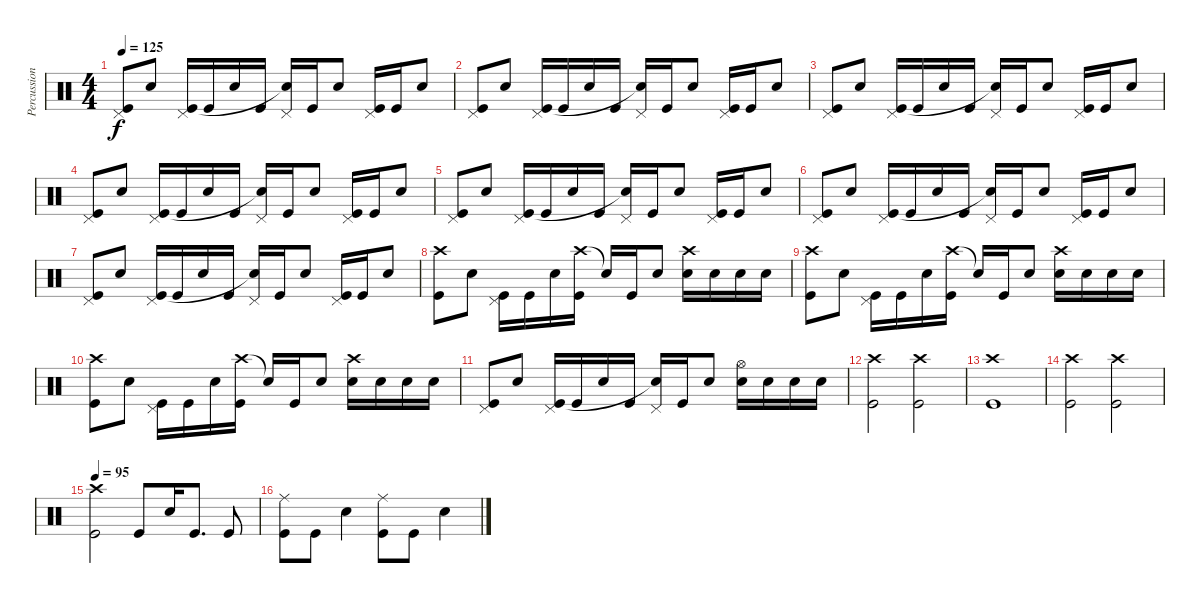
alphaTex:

\track ("Percussion" "Percussion") {instrument percussion}
\staff {score}
\articulation defaults
\ts (4 4)
\tempo 125
\clef neutral
\ks c
("Pedal Hi-Hat (hit)" "Kick (hit)").8{dy f} "Electric Snare (hit)".8 ("Pedal Hi-Hat (hit)" "Kick (hit)").16 "Kick (hit)".16 "Electric Snare (hit)".16 "Kick (hit)".16 ("Pedal Hi-Hat (hit)" "Snare (hit)"{t}).16 "Kick (hit)".16 "Electric Snare (hit)".8 ("Pedal Hi-Hat (hit)" "Kick (hit)").16 "Kick (hit)".16 "Electric Snare (hit)".8 |
("Pedal Hi-Hat (hit)" "Kick (hit)").8 "Electric Snare (hit)".8 ("Pedal Hi-Hat (hit)" "Kick (hit)").16 "Kick (hit)".16 "Electric Snare (hit)".16 "Kick (hit)".16 ("Pedal Hi-Hat (hit)" "Snare (hit)"{t}).16 "Kick (hit)".16 "Electric Snare (hit)".8 ("Pedal Hi-Hat (hit)" "Kick (hit)").16 "Kick (hit)".16 "Electric Snare (hit)".8 |
("Pedal Hi-Hat (hit)" "Kick (hit)").8 "Electric Snare (hit)".8 ("Pedal Hi-Hat (hit)" "Kick (hit)").16 "Kick (hit)".16 "Electric Snare (hit)".16 "Kick (hit)".16 ("Pedal Hi-Hat (hit)" "Snare (hit)"{t}).16 "Kick (hit)".16 "Electric Snare (hit)".8 ("Pedal Hi-Hat (hit)" "Kick (hit)").16 "Kick (hit)".16 "Electric Snare (hit)".8 |
("Pedal Hi-Hat (hit)" "Kick (hit)").8 "Electric Snare (hit)".8 ("Pedal Hi-Hat (hit)" "Kick (hit)").16 "Kick (hit)".16 "Electric Snare (hit)".16 "Kick (hit)".16 ("Pedal Hi-Hat (hit)" "Snare (hit)"{t}).16 "Kick (hit)".16 "Electric Snare (hit)".8 ("Pedal Hi-Hat (hit)" "Kick (hit)").16 "Kick (hit)".16 "Electric Snare (hit)".8 |
("Pedal Hi-Hat (hit)" "Kick (hit)").8 "Electric Snare (hit)".8 ("Pedal Hi-Hat (hit)" "Kick (hit)").16 "Kick (hit)".16 "Electric Snare (hit)".16 "Kick (hit)".16 ("Pedal Hi-Hat (hit)" "Snare (hit)"{t}).16 "Kick (hit)".16 "Electric Snare (hit)".8 ("Pedal Hi-Hat (hit)" "Kick (hit)").16 "Kick (hit)".16 "Electric Snare (hit)".8 |
("Pedal Hi-Hat (hit)" "Kick (hit)").8 "Electric Snare (hit)".8 ("Pedal Hi-Hat (hit)" "Kick (hit)").16 "Kick (hit)".16 "Electric Snare (hit)".16 "Kick (hit)".16 ("Pedal Hi-Hat (hit)" "Snare (hit)"{t}).16 "Kick (hit)".16 "Electric Snare (hit)".8 ("Pedal Hi-Hat (hit)" "Kick (hit)").16 "Kick (hit)".16 "Electric Snare (hit)".8 |
("Pedal Hi-Hat (hit)" "Kick (hit)").8 "Electric Snare (hit)".8 ("Pedal Hi-Hat (hit)" "Kick (hit)").16 "Kick (hit)".16 "Electric Snare (hit)".16 "Kick (hit)".16 ("Pedal Hi-Hat (hit)" "Snare (hit)"{t}).16 "Kick (hit)".16 "Electric Snare (hit)".8 ("Pedal Hi-Hat (hit)" "Kick (hit)").16 "Kick (hit)".16 "Electric Snare (hit)".8 |
("Crash high (hit)" "Kick (hit)").8 "Electric Snare (hit)".8 ("Pedal Hi-Hat (hit)" "Kick (hit)").16 "Kick (hit)".16 "Electric Snare (hit)".16 ("Crash high (hit)" "Kick (hit)").16 "Snare (hit)"{t}.16 "Kick (hit)".16 "Electric Snare (hit)".8 ("Crash high (hit)" "Electric Snare (hit)").16 "Electric Snare (hit)".16 "Electric Snare (hit)".16 "Electric Snare (hit)".16 |
("Crash high (hit)" "Kick (hit)").8 "Electric Snare (hit)".8 ("Pedal Hi-Hat (hit)" "Kick (hit)").16 "Kick (hit)".16 "Electric Snare (hit)".16 ("Crash high (hit)" "Kick (hit)").16 "Snare (hit)"{t}.16 "Kick (hit)".16 "Electric Snare (hit)".8 ("Crash high (hit)" "Electric Snare (hit)").16 "Electric Snare (hit)".16 "Electric Snare (hit)".16 "Electric Snare (hit)".16 |
("Crash high (hit)" "Kick (hit)").8 "Electric Snare (hit)".8 ("Pedal Hi-Hat (hit)" "Kick (hit)").16 "Kick (hit)".16 "Electric Snare (hit)".16 ("Crash high (hit)" "Kick (hit)").16 "Snare (hit)"{t}.16 "Kick (hit)".16 "Electric Snare (hit)".8 ("Crash high (hit)" "Electric Snare (hit)").16 "Electric Snare (hit)".16 "Electric Snare (hit)".16 "Electric Snare (hit)".16 |
("Pedal Hi-Hat (hit)" "Kick (hit)").8 "Electric Snare (hit)".8 ("Pedal Hi-Hat (hit)" "Kick (hit)").16 "Kick (hit)".16 "Electric Snare (hit)".16 "Kick (hit)".16 ("Pedal Hi-Hat (hit)" "Snare (hit)"{t}).16 "Kick (hit)".16 "Electric Snare (hit)".8 ("Hi-Hat (open)" "Electric Snare (hit)").16 "Electric Snare (hit)".16 "Electric Snare (hit)".16 "Electric Snare (hit)".16 |
("Crash high (hit)" "Kick (hit)").2 ("Crash high (hit)" "Kick (hit)").2 |
("Crash high (hit)" "Kick (hit)").1 |
("Crash high (hit)" "Kick (hit)").2 ("Crash high (hit)" "Kick (hit)").2 |
\tempo 95
("Crash high (hit)" "Kick (hit)").2 "Kick (hit)".8 "Electric Snare (hit)".16 "Kick (hit)".8{d} "Kick (hit)".8 |
("Ride (middle)" "Kick (hit)").8 "Kick (hit)".8 "Electric Snare (hit)".4 ("Ride (middle)" "Kick (hit)").8 "Kick (hit)".8 "Electric Snare (hit)".4
